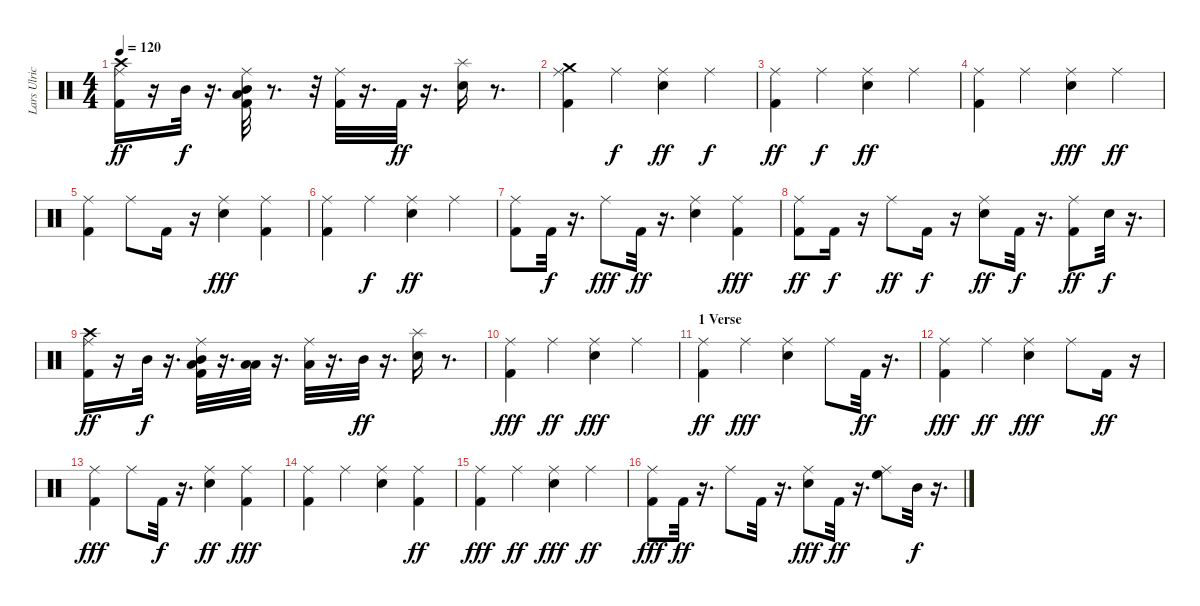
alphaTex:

\track ("Lars Ulrich" "Lars Ulric") {instrument percussion}
\staff {score}
\articulation defaults
\ts (4 4)
\tempo 120
\clef neutral
\ks c
("Crash high (hit)" "Ride (middle)" "Kick (hit) 2").16{dy ff} r.16 "Mid Tom (hit)".32{dy f} r.16{d} ("Ride (middle)" "Low Tom (hit)" "Mid Tom (hit)" "Kick (hit) 2").32 r.8{d} r.32 ("Ride (middle)" "Kick (hit) 2").32 r.16{d} "Kick (hit) 2".32{dy ff} r.16{d} ("Splash (hit)" "Snare (hit) 2").16 r.8{d} |
("Kick (hit) 2" "Ride (middle)" "Crash medium (hit)").4 "Ride (middle)".4{dy f} ("Snare (hit) 2" "Ride (middle)").4{dy ff} "Ride (middle)".4{dy f} |
("Kick (hit) 2" "Ride (middle)").4{dy ff} "Ride (middle)".4{dy f} ("Snare (hit) 2" "Ride (middle)").4{dy ff} "Ride (middle)".4 |
("Kick (hit) 2" "Ride (middle)").4 "Ride (middle)".4 ("Snare (hit) 2" "Ride (middle)").4{dy fff} "Ride (middle)".4{dy ff} |
("Kick (hit) 2" "Ride (middle)").4 "Ride (middle)".8 "Kick (hit) 2".16 r.16 ("Snare (hit) 2" "Ride (middle)").4{dy fff} ("Kick (hit) 2" "Ride (middle)").4 |
("Kick (hit) 2" "Ride (middle)").4 "Ride (middle)".4{dy f} ("Ride (middle)" "Snare (hit) 2").4{dy ff} "Ride (middle)".4 |
("Kick (hit) 2" "Ride (middle)").8 "Kick (hit) 2".32{dy f} r.16{d} "Ride (middle)".8{dy fff} "Kick (hit) 2".32{dy ff} r.16{d} ("Snare (hit) 2" "Ride (middle)").4 ("Kick (hit) 2" "Ride (middle)").4{dy fff} |
("Kick (hit) 2" "Ride (middle)").8{dy ff} "Kick (hit) 2".16{dy f} r.16 "Ride (middle)".8{dy ff} "Kick (hit) 2".16{dy f} r.16 ("Snare (hit) 2" "Ride (middle)").8{dy ff} "Kick (hit) 2".32{dy f} r.16{d} ("Kick (hit) 2" "Ride (middle)").8{dy ff} "Snare (hit) 2".32{dy f} r.16{d} |
("Crash high (hit)" "Ride (middle)" "Kick (hit) 2").16{dy ff} r.16 "Mid Tom (hit)".32{dy f} r.16{d} ("Ride (middle)" "Low Tom (hit)" "Mid Tom (hit)" "Kick (hit) 2").32 r.16{d} ("Low Floor Tom (hit)" "Low Tom (hit)").32 r.16{d} ("Low Tom (hit)" "Ride (middle)").32 r.16{d} "Mid Tom (hit)".32{dy ff} r.16{d} ("Splash (hit)" "Snare (hit) 2").16 r.8{d} |
("Kick (hit) 2" "Ride (middle)").4{dy fff} "Ride (middle)".4{dy ff} ("Snare (hit) 2" "Ride (middle)").4{dy fff} "Ride (middle)".4 |
\section ("" "1 Verse")
("Kick (hit) 2" "Ride (middle)").4{dy ff} "Ride (middle)".4{dy fff} ("Snare (hit) 2" "Ride (middle)").4 "Ride (middle)".8 "Kick (hit) 2".32{dy ff} r.16{d} |
("Kick (hit) 2" "Ride (middle)").4{dy fff} "Ride (middle)".4{dy ff} ("Snare (hit) 2" "Ride (middle)").4{dy fff} "Ride (middle)".8 "Kick (hit) 2".16{dy ff} r.16 |
("Kick (hit) 2" "Ride (middle)").4{dy fff} "Ride (middle)".8 "Kick (hit) 2".32{dy f} r.16{d} ("Snare (hit) 2" "Ride (middle)").4{dy ff} ("Kick (hit) 2" "Ride (middle)").4{dy fff} |
("Kick (hit) 2" "Ride (middle)").4 "Ride (middle)".4 ("Snare (hit) 2" "Ride (middle)").4 ("Kick (hit) 2" "Ride (middle)").4{dy ff} |
("Kick (hit) 2" "Ride (middle)").4{dy fff} "Ride (middle)".4{dy ff} ("Snare (hit) 2" "Ride (middle)").4{dy fff} "Ride (middle)".4{dy ff} |
("Kick (hit) 2" "Ride (middle)").8{dy fff} "Kick (hit) 2".32{dy ff} r.16{d} "Ride (middle)".8 "Kick (hit) 2".32 r.16{d} ("Snare (hit) 2" "Ride (middle)").8{dy fff} "Kick (hit) 2".32{dy ff} r.16{d} ("High Floor Tom (hit)" "Ride (middle)").8 "Mid Tom (hit)".32{dy f} r.16{d}
